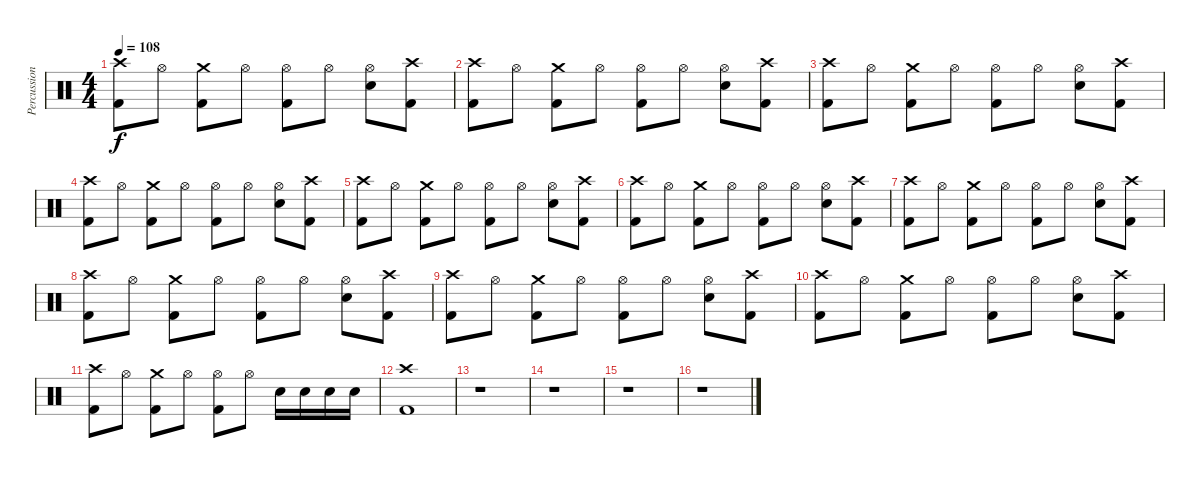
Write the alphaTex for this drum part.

\track ("Percussion" "Percussion") {instrument percussion}
\staff {score}
\articulation defaults
\ts (4 4)
\tempo 108
\clef neutral
\ks c
("Crash high (hit)" "Kick (hit) 2").8{dy f} "Hi-Hat (open)".8 ("Crash medium (hit)" "Kick (hit) 2").8 "Hi-Hat (open)".8 ("Hi-Hat (open)" "Kick (hit) 2").8 "Hi-Hat (open)".8 ("Hi-Hat (open)" "Snare (hit) 2").8 ("Crash high (hit)" "Kick (hit) 2").8 |
("Crash high (hit)" "Kick (hit) 2").8 "Hi-Hat (open)".8 ("Crash medium (hit)" "Kick (hit) 2").8 "Hi-Hat (open)".8 ("Hi-Hat (open)" "Kick (hit) 2").8 "Hi-Hat (open)".8 ("Hi-Hat (open)" "Snare (hit) 2").8 ("Crash high (hit)" "Kick (hit) 2").8 |
("Crash high (hit)" "Kick (hit) 2").8 "Hi-Hat (open)".8 ("Crash medium (hit)" "Kick (hit) 2").8 "Hi-Hat (open)".8 ("Hi-Hat (open)" "Kick (hit) 2").8 "Hi-Hat (open)".8 ("Hi-Hat (open)" "Snare (hit) 2").8 ("Crash high (hit)" "Kick (hit) 2").8 |
("Crash high (hit)" "Kick (hit) 2").8 "Hi-Hat (open)".8 ("Crash medium (hit)" "Kick (hit) 2").8 "Hi-Hat (open)".8 ("Hi-Hat (open)" "Kick (hit) 2").8 "Hi-Hat (open)".8 ("Hi-Hat (open)" "Snare (hit) 2").8 ("Crash high (hit)" "Kick (hit) 2").8 |
("Crash high (hit)" "Kick (hit) 2").8 "Hi-Hat (open)".8 ("Crash medium (hit)" "Kick (hit) 2").8 "Hi-Hat (open)".8 ("Hi-Hat (open)" "Kick (hit) 2").8 "Hi-Hat (open)".8 ("Hi-Hat (open)" "Snare (hit) 2").8 ("Crash high (hit)" "Kick (hit) 2").8 |
("Crash high (hit)" "Kick (hit) 2").8 "Hi-Hat (open)".8 ("Crash medium (hit)" "Kick (hit) 2").8 "Hi-Hat (open)".8 ("Hi-Hat (open)" "Kick (hit) 2").8 "Hi-Hat (open)".8 ("Hi-Hat (open)" "Snare (hit) 2").8 ("Crash high (hit)" "Kick (hit) 2").8 |
("Crash high (hit)" "Kick (hit) 2").8 "Hi-Hat (open)".8 ("Crash medium (hit)" "Kick (hit) 2").8 "Hi-Hat (open)".8 ("Hi-Hat (open)" "Kick (hit) 2").8 "Hi-Hat (open)".8 ("Hi-Hat (open)" "Snare (hit) 2").8 ("Crash high (hit)" "Kick (hit) 2").8 |
("Crash high (hit)" "Kick (hit) 2").8 "Hi-Hat (open)".8 ("Crash medium (hit)" "Kick (hit) 2").8 "Hi-Hat (open)".8 ("Hi-Hat (open)" "Kick (hit) 2").8 "Hi-Hat (open)".8 ("Hi-Hat (open)" "Snare (hit) 2").8 ("Crash high (hit)" "Kick (hit) 2").8 |
("Crash high (hit)" "Kick (hit) 2").8 "Hi-Hat (open)".8 ("Crash medium (hit)" "Kick (hit) 2").8 "Hi-Hat (open)".8 ("Hi-Hat (open)" "Kick (hit) 2").8 "Hi-Hat (open)".8 ("Hi-Hat (open)" "Snare (hit) 2").8 ("Crash high (hit)" "Kick (hit) 2").8 |
("Crash high (hit)" "Kick (hit) 2").8 "Hi-Hat (open)".8 ("Crash medium (hit)" "Kick (hit) 2").8 "Hi-Hat (open)".8 ("Hi-Hat (open)" "Kick (hit) 2").8 "Hi-Hat (open)".8 ("Hi-Hat (open)" "Snare (hit) 2").8 ("Crash high (hit)" "Kick (hit) 2").8 |
("Crash high (hit)" "Kick (hit) 2").8 "Hi-Hat (open)".8 ("Crash medium (hit)" "Kick (hit) 2").8 "Hi-Hat (open)".8 ("Hi-Hat (open)" "Kick (hit) 2").8 "Hi-Hat (open)".8 "Snare (hit) 2".16 "Snare (hit) 2".16 "Snare (hit) 2".16 "Snare (hit) 2".16 |
("Crash high (hit)" "Kick (hit) 2").1 |
r.1 |
r.1 |
r.1 |
r.1
